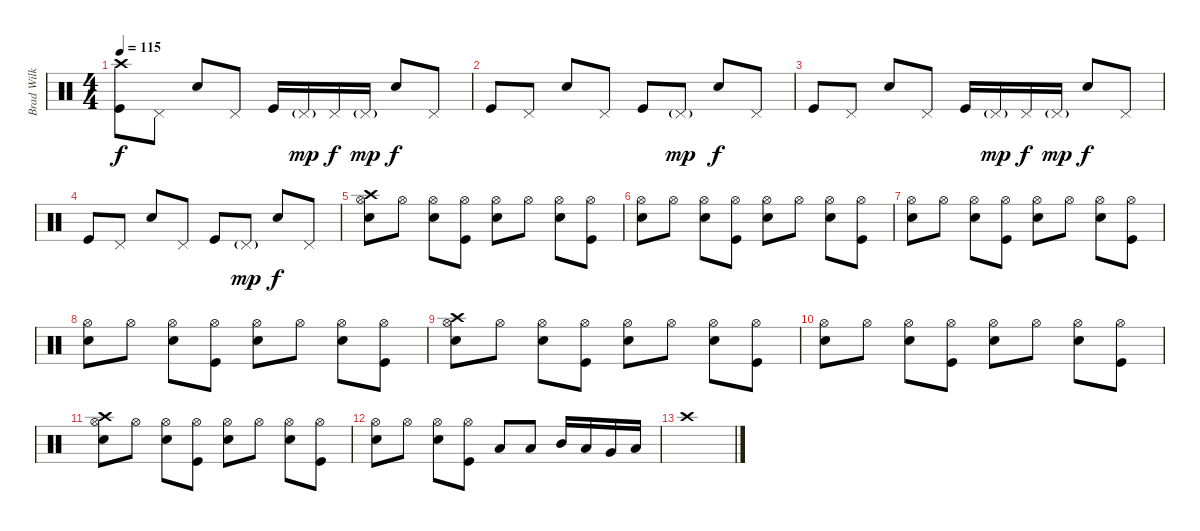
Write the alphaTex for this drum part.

\track ("Brad Wilk - Drums" "Brad Wilk ") {instrument percussion}
\staff {score}
\articulation defaults
\ts (4 4)
\tempo 115
\clef neutral
\ks c
("Crash high (hit)" "Kick (hit)").8{dy f} "Pedal Hi-Hat (hit)".8 "Snare (hit) 2".8 "Pedal Hi-Hat (hit)".8 "Kick (hit)".16 "Pedal Hi-Hat (hit)"{g}.16{dy mp} "Pedal Hi-Hat (hit)".16{dy f} "Pedal Hi-Hat (hit)"{g}.16{dy mp} "Snare (hit) 2".8{dy f} "Pedal Hi-Hat (hit)".8 |
"Kick (hit)".8 "Pedal Hi-Hat (hit)".8 "Snare (hit) 2".8 "Pedal Hi-Hat (hit)".8 "Kick (hit)".8 "Pedal Hi-Hat (hit)"{g}.8{dy mp} "Snare (hit) 2".8{dy f} "Pedal Hi-Hat (hit)".8 |
"Kick (hit)".8 "Pedal Hi-Hat (hit)".8 "Snare (hit) 2".8 "Pedal Hi-Hat (hit)".8 "Kick (hit)".16 "Pedal Hi-Hat (hit)"{g}.16{dy mp} "Pedal Hi-Hat (hit)".16{dy f} "Pedal Hi-Hat (hit)"{g}.16{dy mp} "Snare (hit) 2".8{dy f} "Pedal Hi-Hat (hit)".8 |
"Kick (hit)".8 "Pedal Hi-Hat (hit)".8 "Snare (hit) 2".8 "Pedal Hi-Hat (hit)".8 "Kick (hit)".8 "Pedal Hi-Hat (hit)"{g}.8{dy mp} "Snare (hit) 2".8{dy f} "Pedal Hi-Hat (hit)".8 |
("Crash high (hit)" "Snare (hit) 2" "Hi-Hat (open)").8 "Hi-Hat (open)".8 ("Snare (hit) 2" "Hi-Hat (open)").8 ("Hi-Hat (open)" "Kick (hit)").8 ("Snare (hit) 2" "Hi-Hat (open)").8 "Hi-Hat (open)".8 ("Snare (hit) 2" "Hi-Hat (open)").8 ("Hi-Hat (open)" "Kick (hit)").8 |
("Snare (hit) 2" "Hi-Hat (open)").8 "Hi-Hat (open)".8 ("Snare (hit) 2" "Hi-Hat (open)").8 ("Hi-Hat (open)" "Kick (hit)").8 ("Snare (hit) 2" "Hi-Hat (open)").8 "Hi-Hat (open)".8 ("Snare (hit) 2" "Hi-Hat (open)").8 ("Hi-Hat (open)" "Kick (hit)").8 |
("Snare (hit) 2" "Hi-Hat (open)").8 "Hi-Hat (open)".8 ("Snare (hit) 2" "Hi-Hat (open)").8 ("Hi-Hat (open)" "Kick (hit)").8 ("Snare (hit) 2" "Hi-Hat (open)").8 "Hi-Hat (open)".8 ("Snare (hit) 2" "Hi-Hat (open)").8 ("Hi-Hat (open)" "Kick (hit)").8 |
("Snare (hit) 2" "Hi-Hat (open)").8 "Hi-Hat (open)".8 ("Snare (hit) 2" "Hi-Hat (open)").8 ("Hi-Hat (open)" "Kick (hit)").8 ("Snare (hit) 2" "Hi-Hat (open)").8 "Hi-Hat (open)".8 ("Snare (hit) 2" "Hi-Hat (open)").8 ("Hi-Hat (open)" "Kick (hit)").8 |
("Crash high (hit)" "Snare (hit) 2" "Hi-Hat (open)").8 "Hi-Hat (open)".8 ("Snare (hit) 2" "Hi-Hat (open)").8 ("Hi-Hat (open)" "Kick (hit)").8 ("Snare (hit) 2" "Hi-Hat (open)").8 "Hi-Hat (open)".8 ("Snare (hit) 2" "Hi-Hat (open)").8 ("Hi-Hat (open)" "Kick (hit)").8 |
("Snare (hit) 2" "Hi-Hat (open)").8 "Hi-Hat (open)".8 ("Snare (hit) 2" "Hi-Hat (open)").8 ("Hi-Hat (open)" "Kick (hit)").8 ("Snare (hit) 2" "Hi-Hat (open)").8 "Hi-Hat (open)".8 ("Snare (hit) 2" "Hi-Hat (open)").8 ("Hi-Hat (open)" "Kick (hit)").8 |
("Crash high (hit)" "Snare (hit) 2" "Hi-Hat (open)").8 "Hi-Hat (open)".8 ("Snare (hit) 2" "Hi-Hat (open)").8 ("Hi-Hat (open)" "Kick (hit)").8 ("Snare (hit) 2" "Hi-Hat (open)").8 "Hi-Hat (open)".8 ("Snare (hit) 2" "Hi-Hat (open)").8 ("Hi-Hat (open)" "Kick (hit)").8 |
("Snare (hit) 2" "Hi-Hat (open)").8 "Hi-Hat (open)".8 ("Snare (hit) 2" "Hi-Hat (open)").8 ("Hi-Hat (open)" "Kick (hit)").8 "Low Tom (hit)".8 "Low Tom (hit)".8 "Mid Tom (hit)".16 "Low Tom (hit)".16 "Very Low Tom (hit)".16 "Low Floor Tom (hit)".16 |
"Crash high (hit)".1
